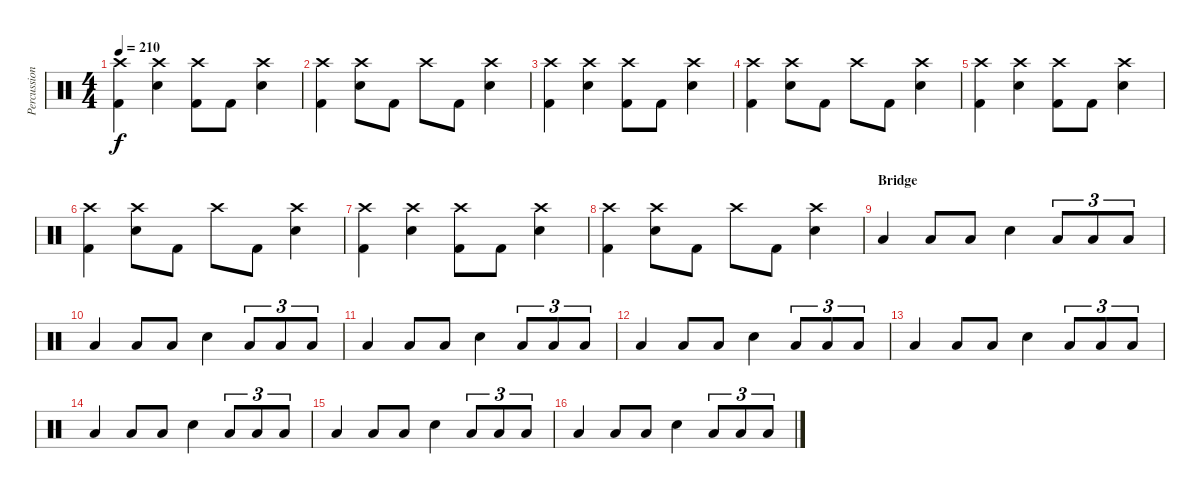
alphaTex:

\track ("Percussion" "Percussion") {instrument percussion}
\staff {score}
\articulation defaults
\ts (4 4)
\tempo 210
\clef neutral
\ks c
("Kick (hit) 2" "Crash high (hit)").4{dy f} ("Electric Snare (hit)" "Crash high (hit)").4 ("Kick (hit) 2" "Crash high (hit)").8 "Kick (hit) 2".8 ("Electric Snare (hit)" "Crash high (hit)").4 |
("Kick (hit) 2" "Crash high (hit)").4 ("Electric Snare (hit)" "Crash high (hit)").8 "Kick (hit) 2".8 "Crash high (hit)".8 "Kick (hit) 2".8 ("Electric Snare (hit)" "Crash high (hit)").4 |
("Kick (hit) 2" "Crash high (hit)").4 ("Electric Snare (hit)" "Crash high (hit)").4 ("Kick (hit) 2" "Crash high (hit)").8 "Kick (hit) 2".8 ("Electric Snare (hit)" "Crash high (hit)").4 |
("Kick (hit) 2" "Crash high (hit)").4 ("Electric Snare (hit)" "Crash high (hit)").8 "Kick (hit) 2".8 "Crash high (hit)".8 "Kick (hit) 2".8 ("Electric Snare (hit)" "Crash high (hit)").4 |
("Kick (hit) 2" "Crash high (hit)").4 ("Electric Snare (hit)" "Crash high (hit)").4 ("Kick (hit) 2" "Crash high (hit)").8 "Kick (hit) 2".8 ("Electric Snare (hit)" "Crash high (hit)").4 |
("Kick (hit) 2" "Crash high (hit)").4 ("Electric Snare (hit)" "Crash high (hit)").8 "Kick (hit) 2".8 "Crash high (hit)".8 "Kick (hit) 2".8 ("Electric Snare (hit)" "Crash high (hit)").4 |
("Kick (hit) 2" "Crash high (hit)").4 ("Electric Snare (hit)" "Crash high (hit)").4 ("Kick (hit) 2" "Crash high (hit)").8 "Kick (hit) 2".8 ("Electric Snare (hit)" "Crash high (hit)").4 |
("Kick (hit) 2" "Crash high (hit)").4 ("Electric Snare (hit)" "Crash high (hit)").8 "Kick (hit) 2".8 "Crash high (hit)".8 "Kick (hit) 2".8 ("Electric Snare (hit)" "Crash high (hit)").4 |
\section ("" "Bridge")
"Low Floor Tom (hit)".4 "Low Floor Tom (hit)".8 "Low Floor Tom (hit)".8 "Electric Snare (hit)".4 "Low Floor Tom (hit)".8{tu (3 2)} "Low Floor Tom (hit)".8{tu (3 2)} "Low Floor Tom (hit)".8{tu (3 2)} |
"Low Floor Tom (hit)".4 "Low Floor Tom (hit)".8 "Low Floor Tom (hit)".8 "Electric Snare (hit)".4 "Low Floor Tom (hit)".8{tu (3 2)} "Low Floor Tom (hit)".8{tu (3 2)} "Low Floor Tom (hit)".8{tu (3 2)} |
"Low Floor Tom (hit)".4 "Low Floor Tom (hit)".8 "Low Floor Tom (hit)".8 "Electric Snare (hit)".4 "Low Floor Tom (hit)".8{tu (3 2)} "Low Floor Tom (hit)".8{tu (3 2)} "Low Floor Tom (hit)".8{tu (3 2)} |
"Low Floor Tom (hit)".4 "Low Floor Tom (hit)".8 "Low Floor Tom (hit)".8 "Electric Snare (hit)".4 "Low Floor Tom (hit)".8{tu (3 2)} "Low Floor Tom (hit)".8{tu (3 2)} "Low Floor Tom (hit)".8{tu (3 2)} |
"Low Floor Tom (hit)".4 "Low Floor Tom (hit)".8 "Low Floor Tom (hit)".8 "Electric Snare (hit)".4 "Low Floor Tom (hit)".8{tu (3 2)} "Low Floor Tom (hit)".8{tu (3 2)} "Low Floor Tom (hit)".8{tu (3 2)} |
"Low Floor Tom (hit)".4 "Low Floor Tom (hit)".8 "Low Floor Tom (hit)".8 "Electric Snare (hit)".4 "Low Floor Tom (hit)".8{tu (3 2)} "Low Floor Tom (hit)".8{tu (3 2)} "Low Floor Tom (hit)".8{tu (3 2)} |
"Low Floor Tom (hit)".4 "Low Floor Tom (hit)".8 "Low Floor Tom (hit)".8 "Electric Snare (hit)".4 "Low Floor Tom (hit)".8{tu (3 2)} "Low Floor Tom (hit)".8{tu (3 2)} "Low Floor Tom (hit)".8{tu (3 2)} |
"Low Floor Tom (hit)".4 "Low Floor Tom (hit)".8 "Low Floor Tom (hit)".8 "Electric Snare (hit)".4 "Low Floor Tom (hit)".8{tu (3 2)} "Low Floor Tom (hit)".8{tu (3 2)} "Low Floor Tom (hit)".8{tu (3 2)}
